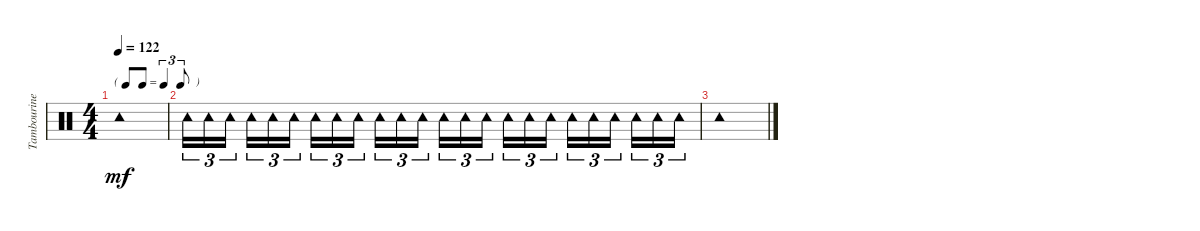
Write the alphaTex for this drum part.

\track ("Tambourine" "Tambourine") {instrument percussion}
\staff {score}
\articulation defaults
\ts (4 4)
\tf triplet8th
\tempo 122
\clef neutral
\ks c "Tambourine (hit)".1{dy mf}
|
"Tambourine (hit)".16{tu (3 2)} "Tambourine (hit)".16{tu (3 2)} "Tambourine (hit)".16{tu (3 2)} "Tambourine (hit)".16{tu (3 2)} "Tambourine (hit)".16{tu (3 2)} "Tambourine (hit)".16{tu (3 2)} "Tambourine (hit)".16{tu (3 2)} "Tambourine (hit)".16{tu (3 2)} "Tambourine (hit)".16{tu (3 2)} "Tambourine (hit)".16{tu (3 2)} "Tambourine (hit)".16{tu (3 2)} "Tambourine (hit)".16{tu (3 2)} "Tambourine (hit)".16{tu (3 2)} "Tambourine (hit)".16{tu (3 2)} "Tambourine (hit)".16{tu (3 2)} "Tambourine (hit)".16{tu (3 2)} "Tambourine (hit)".16{tu (3 2)} "Tambourine (hit)".16{tu (3 2)} "Tambourine (hit)".16{tu (3 2)} "Tambourine (hit)".16{tu (3 2)} "Tambourine (hit)".16{tu (3 2)} "Tambourine (hit)".16{tu (3 2)} "Tambourine (hit)".16{tu (3 2)} "Tambourine (hit)".16{tu (3 2)} |
"Tambourine (hit)".1
